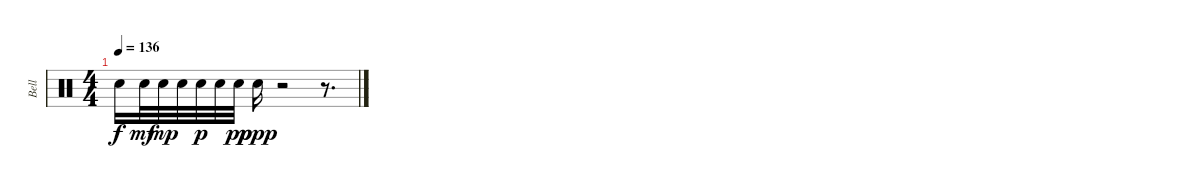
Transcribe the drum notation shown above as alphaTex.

\track ("Bell" "Bell") {instrument percussion}
\staff {score}
\articulation defaults
\ts (4 4)
\tempo 136
\clef neutral
\ks c "Metronome (bell)".16{dy f} "Metronome (bell)".32{dy mf} "Metronome (bell)".32{dy mp} "Metronome (bell)".32 "Metronome (bell)".32{dy p} "Metronome (bell)".32 "Metronome (bell)".32{dy pp} "Metronome (bell)".16{dy ppp}
r.2 r.8{d}
